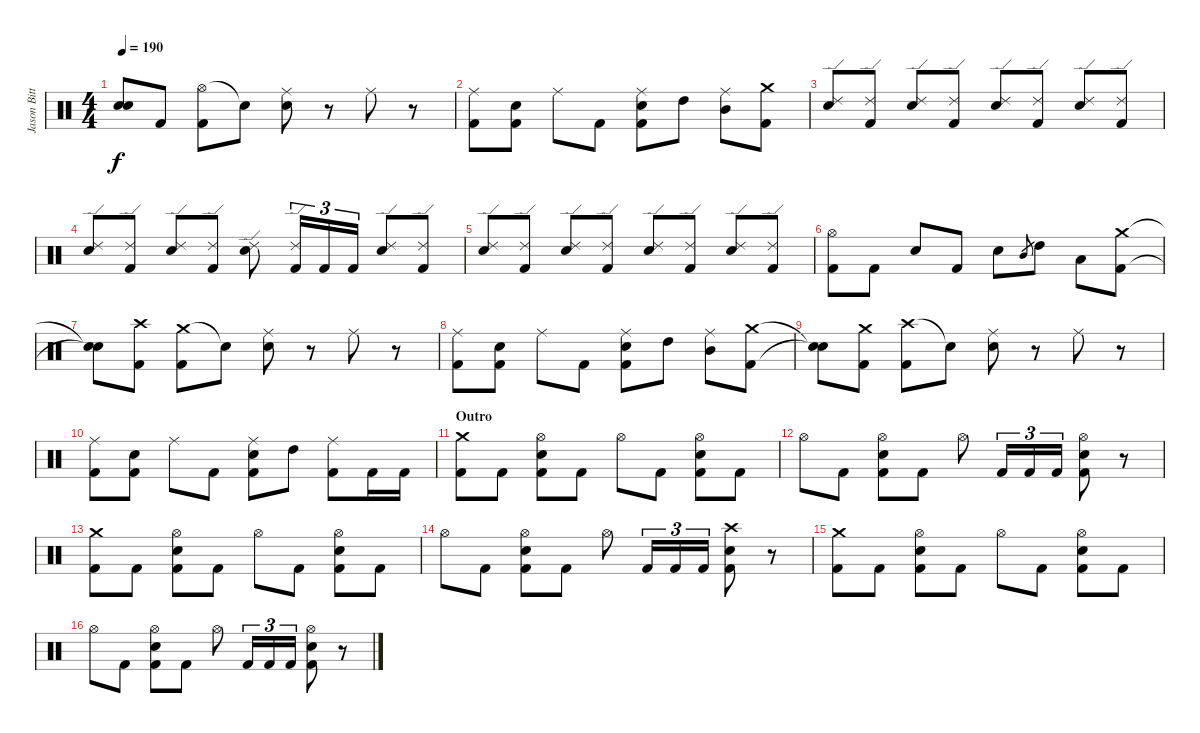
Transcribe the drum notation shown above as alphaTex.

\track ("Jason Bittner" "Jason Bitt") {instrument percussion}
\staff {score}
\articulation defaults
\ts (4 4)
\tempo 190
\clef neutral
\ks c
("Snare (hit)"{t} "Snare (hit)"{t}).8{dy f} "Kick (hit) 2".8 ("Hi-Hat (open)" "Kick (hit) 2").8 "Snare (hit)"{t}.8 ("Ride (middle)" "Snare (hit) 2").8 r.8 "Ride (middle)".8 r.8 |
("Ride (middle)" "Kick (hit) 2").8 ("Snare (hit) 2" "Kick (hit) 2").8 "Ride (middle)".8 "Kick (hit) 2".8 ("Ride (middle)" "Snare (hit) 2" "Kick (hit) 2").8 "High Tom (hit)".8 ("Ride (middle)" "Mid Tom (hit)").8 ("Crash medium (hit)" "Kick (hit) 2").8 |
("Ride (edge) 2" "Snare (hit) 2").8 ("Ride (edge) 2" "Kick (hit) 2").8 ("Ride (edge) 2" "Snare (hit) 2").8 ("Ride (edge) 2" "Kick (hit) 2").8 ("Ride (edge) 2" "Snare (hit) 2").8 ("Ride (edge) 2" "Kick (hit) 2").8 ("Ride (edge) 2" "Snare (hit) 2").8 ("Ride (edge) 2" "Kick (hit) 2").8 |
("Ride (edge) 2" "Snare (hit) 2").8 ("Ride (edge) 2" "Kick (hit) 2").8 ("Ride (edge) 2" "Snare (hit) 2").8 ("Ride (edge) 2" "Kick (hit) 2").8 ("Ride (edge) 2" "Snare (hit) 2").8 ("Ride (edge) 2" "Kick (hit) 2").16{tu (3 2)} "Kick (hit) 2".16{tu (3 2)} "Kick (hit) 2".16{tu (3 2)} ("Ride (edge) 2" "Snare (hit) 2").8 ("Ride (edge) 2" "Kick (hit) 2").8 |
("Ride (edge) 2" "Snare (hit) 2").8 ("Ride (edge) 2" "Kick (hit) 2").8 ("Ride (edge) 2" "Snare (hit) 2").8 ("Ride (edge) 2" "Kick (hit) 2").8 ("Ride (edge) 2" "Snare (hit) 2").8 ("Ride (edge) 2" "Kick (hit) 2").8 ("Ride (edge) 2" "Snare (hit) 2").8 ("Ride (edge) 2" "Kick (hit) 2").8 |
("Hi-Hat (open)" "Kick (hit) 2").8 "Kick (hit) 2".8 "Snare (hit) 2".8 "Kick (hit) 2".8 "Snare (hit) 2".8 "Mid Tom (hit)".8{gr} "High Tom (hit)".8 "Low Tom (hit)".8 ("Crash medium (hit)" "Kick (hit) 2").8 |
("Snare (hit)"{t} "Snare (hit)"{t}).8 ("Crash high (hit)" "Kick (hit) 2").8 ("Crash medium (hit)" "Kick (hit) 2").8 "Snare (hit)"{t}.8 ("Ride (middle)" "Snare (hit) 2").8 r.8 "Ride (middle)".8 r.8 |
("Ride (middle)" "Kick (hit) 2").8 ("Snare (hit) 2" "Kick (hit) 2").8 "Ride (middle)".8 "Kick (hit) 2".8 ("Ride (middle)" "Snare (hit) 2" "Kick (hit) 2").8 "High Tom (hit)".8 ("Ride (middle)" "Mid Tom (hit)").8 ("Crash medium (hit)" "Kick (hit) 2").8 |
("Snare (hit)"{t} "Snare (hit)"{t}).8 ("Crash medium (hit)" "Kick (hit) 2").8 ("Crash high (hit)" "Kick (hit) 2").8 "Snare (hit)"{t}.8 ("Ride (middle)" "Snare (hit) 2").8 r.8 "Ride (middle)".8 r.8 |
("Ride (middle)" "Kick (hit) 2").8 ("Snare (hit) 2" "Kick (hit) 2").8 "Ride (middle)".8 "Kick (hit) 2".8 ("Ride (middle)" "Snare (hit) 2" "Kick (hit) 2").8 "High Tom (hit)".8 ("Ride (middle)" "Kick (hit) 2").8 "Kick (hit) 2".16 "Kick (hit) 2".16 |
\section ("" "Outro")
("Crash medium (hit)" "Kick (hit) 2").8 "Kick (hit) 2".8 ("Hi-Hat (open)" "Snare (hit) 2" "Kick (hit) 2").8 "Kick (hit) 2".8 "Hi-Hat (open)".8 "Kick (hit) 2".8 ("Hi-Hat (open)" "Snare (hit) 2" "Kick (hit) 2").8 "Kick (hit) 2".8 |
"Hi-Hat (open)".8 "Kick (hit) 2".8 ("Hi-Hat (open)" "Snare (hit) 2" "Kick (hit) 2").8 "Kick (hit) 2".8 "Hi-Hat (open)".8 "Kick (hit) 2".16{tu (3 2)} "Kick (hit) 2".16{tu (3 2)} "Kick (hit) 2".16{tu (3 2)} ("Hi-Hat (open)" "Snare (hit) 2" "Kick (hit) 2").8 r.8 |
("Crash medium (hit)" "Kick (hit) 2").8 "Kick (hit) 2".8 ("Hi-Hat (open)" "Snare (hit) 2" "Kick (hit) 2").8 "Kick (hit) 2".8 "Hi-Hat (open)".8 "Kick (hit) 2".8 ("Hi-Hat (open)" "Snare (hit) 2" "Kick (hit) 2").8 "Kick (hit) 2".8 |
"Hi-Hat (open)".8 "Kick (hit) 2".8 ("Hi-Hat (open)" "Snare (hit) 2" "Kick (hit) 2").8 "Kick (hit) 2".8 "Hi-Hat (open)".8 "Kick (hit) 2".16{tu (3 2)} "Kick (hit) 2".16{tu (3 2)} "Kick (hit) 2".16{tu (3 2)} ("Crash high (hit)" "Snare (hit) 2" "Kick (hit) 2").8 r.8 |
("Crash medium (hit)" "Kick (hit) 2").8 "Kick (hit) 2".8 ("Hi-Hat (open)" "Snare (hit) 2" "Kick (hit) 2").8 "Kick (hit) 2".8 "Hi-Hat (open)".8 "Kick (hit) 2".8 ("Hi-Hat (open)" "Snare (hit) 2" "Kick (hit) 2").8 "Kick (hit) 2".8 |
"Hi-Hat (open)".8 "Kick (hit) 2".8 ("Hi-Hat (open)" "Snare (hit) 2" "Kick (hit) 2").8 "Kick (hit) 2".8 "Hi-Hat (open)".8 "Kick (hit) 2".16{tu (3 2)} "Kick (hit) 2".16{tu (3 2)} "Kick (hit) 2".16{tu (3 2)} ("Hi-Hat (open)" "Snare (hit) 2" "Kick (hit) 2").8 r.8
